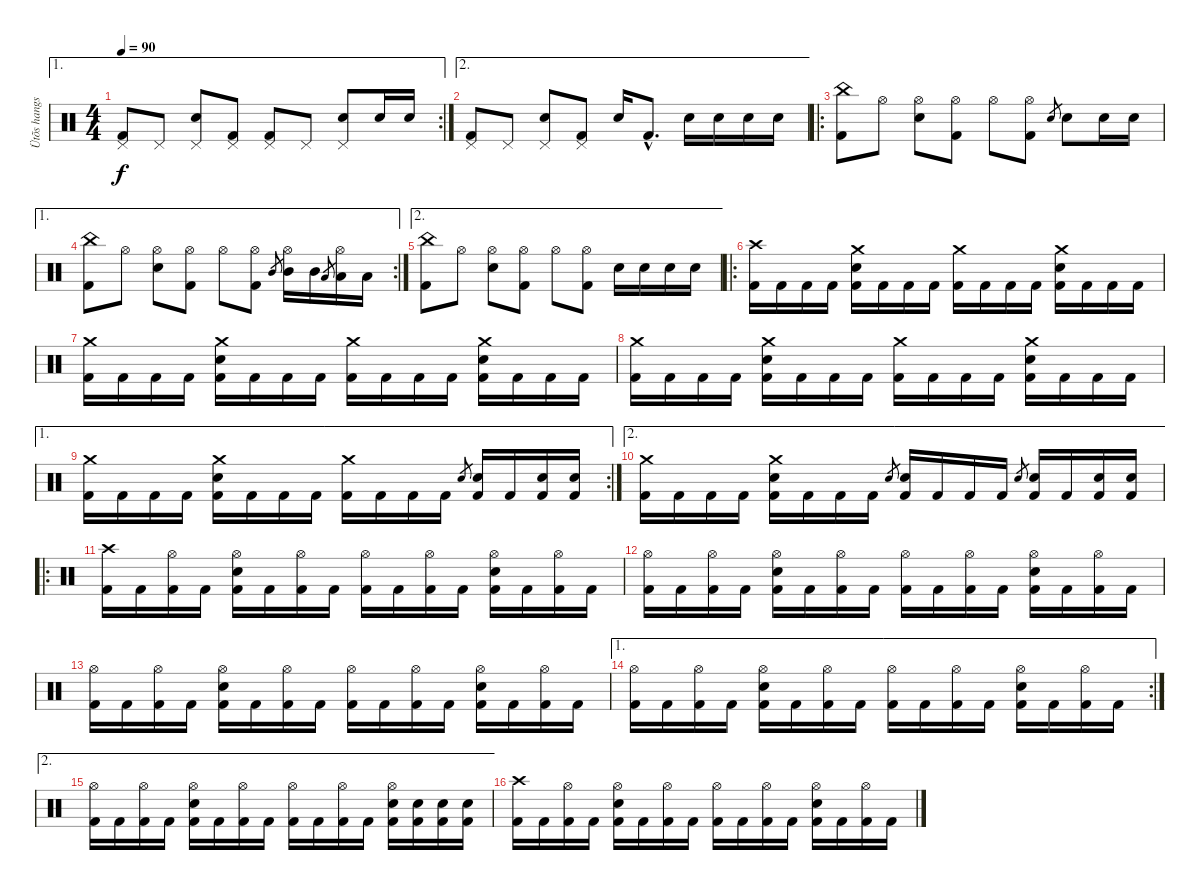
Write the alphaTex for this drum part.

\track ("Ütõs hangszer" "Ütõs hangs") {instrument percussion}
\staff {score}
\articulation defaults
\ae 1
\rc 2
\ts (4 4)
\tempo 90
\clef neutral
\ks c
("Pedal Hi-Hat (hit)" "Kick (hit) 2").8{dy f} "Pedal Hi-Hat (hit)".8 ("Pedal Hi-Hat (hit)" "Electric Snare (hit)").8 ("Pedal Hi-Hat (hit)" "Kick (hit) 2").8 ("Pedal Hi-Hat (hit)" "Kick (hit) 2").8 "Pedal Hi-Hat (hit)".8 ("Pedal Hi-Hat (hit)" "Electric Snare (hit)").8 "Electric Snare (hit)".16 "Electric Snare (hit)".16 |
\ae 2
("Pedal Hi-Hat (hit)" "Kick (hit) 2").8 "Pedal Hi-Hat (hit)".8 ("Pedal Hi-Hat (hit)" "Electric Snare (hit)").8 ("Pedal Hi-Hat (hit)" "Kick (hit) 2").8 "Electric Snare (hit)".16 "Kick (hit) 2"{hac}.8{d} "Electric Snare (hit)".16 "Electric Snare (hit)".16 "Electric Snare (hit)".16 "Electric Snare (hit)".16 |
\ro
("China (hit)" "Kick (hit) 2").8 "Hi-Hat (open)".8 ("Hi-Hat (open)" "Electric Snare (hit)").8 ("Hi-Hat (open)" "Kick (hit) 2").8 "Hi-Hat (open)".8 ("Hi-Hat (open)" "Kick (hit) 2").8 "Electric Snare (hit)".8{gr} "Electric Snare (hit)".8 "Electric Snare (hit)".16 "Electric Snare (hit)".16 |
\ae 1
\rc 2
("China (hit)" "Kick (hit) 2").8 "Hi-Hat (open)".8 ("Hi-Hat (open)" "Electric Snare (hit)").8 ("Hi-Hat (open)" "Kick (hit) 2").8 "Hi-Hat (open)".8 ("Hi-Hat (open)" "Kick (hit) 2").8 "Mid Tom (hit)".8{gr} ("Hi-Hat (open)" "Mid Tom (hit)").16 "Mid Tom (hit)".16 "Low Tom (hit)".8{gr} ("Hi-Hat (open)" "Low Tom (hit)").16 "Low Tom (hit)".16 |
\ae 2
("China (hit)" "Kick (hit) 2").8 "Hi-Hat (open)".8 ("Hi-Hat (open)" "Electric Snare (hit)").8 ("Hi-Hat (open)" "Kick (hit) 2").8 "Hi-Hat (open)".8 ("Hi-Hat (open)" "Kick (hit) 2").8 "Electric Snare (hit)".16 "Electric Snare (hit)".16 "Electric Snare (hit)".16 "Electric Snare (hit)".16 |
\ro
("Crash high (hit)" "Kick (hit) 2").16 "Kick (hit) 2".16 "Kick (hit) 2".16 "Kick (hit) 2".16 ("Crash medium (hit)" "Electric Snare (hit)" "Kick (hit) 2").16 "Kick (hit) 2".16 "Kick (hit) 2".16 "Kick (hit) 2".16 ("Crash medium (hit)" "Kick (hit) 2").16 "Kick (hit) 2".16 "Kick (hit) 2".16 "Kick (hit) 2".16 ("Crash medium (hit)" "Electric Snare (hit)" "Kick (hit) 2").16 "Kick (hit) 2".16 "Kick (hit) 2".16 "Kick (hit) 2".16 |
("Crash medium (hit)" "Kick (hit) 2").16 "Kick (hit) 2".16 "Kick (hit) 2".16 "Kick (hit) 2".16 ("Crash medium (hit)" "Electric Snare (hit)" "Kick (hit) 2").16 "Kick (hit) 2".16 "Kick (hit) 2".16 "Kick (hit) 2".16 ("Crash medium (hit)" "Kick (hit) 2").16 "Kick (hit) 2".16 "Kick (hit) 2".16 "Kick (hit) 2".16 ("Crash medium (hit)" "Electric Snare (hit)" "Kick (hit) 2").16 "Kick (hit) 2".16 "Kick (hit) 2".16 "Kick (hit) 2".16 |
("Crash medium (hit)" "Kick (hit) 2").16 "Kick (hit) 2".16 "Kick (hit) 2".16 "Kick (hit) 2".16 ("Crash medium (hit)" "Electric Snare (hit)" "Kick (hit) 2").16 "Kick (hit) 2".16 "Kick (hit) 2".16 "Kick (hit) 2".16 ("Crash medium (hit)" "Kick (hit) 2").16 "Kick (hit) 2".16 "Kick (hit) 2".16 "Kick (hit) 2".16 ("Crash medium (hit)" "Electric Snare (hit)" "Kick (hit) 2").16 "Kick (hit) 2".16 "Kick (hit) 2".16 "Kick (hit) 2".16 |
\ae 1
\rc 2
("Crash medium (hit)" "Kick (hit) 2").16 "Kick (hit) 2".16 "Kick (hit) 2".16 "Kick (hit) 2".16 ("Crash medium (hit)" "Electric Snare (hit)" "Kick (hit) 2").16 "Kick (hit) 2".16 "Kick (hit) 2".16 "Kick (hit) 2".16 ("Crash medium (hit)" "Kick (hit) 2").16 "Kick (hit) 2".16 "Kick (hit) 2".16 "Kick (hit) 2".16 "Electric Snare (hit)".8{gr} ("Electric Snare (hit)" "Kick (hit) 2").16 "Kick (hit) 2".16 ("Electric Snare (hit)" "Kick (hit) 2").16 ("Electric Snare (hit)" "Kick (hit) 2").16 |
\ae 2
("Crash medium (hit)" "Kick (hit) 2").16 "Kick (hit) 2".16 "Kick (hit) 2".16 "Kick (hit) 2".16 ("Crash medium (hit)" "Electric Snare (hit)" "Kick (hit) 2").16 "Kick (hit) 2".16 "Kick (hit) 2".16 "Kick (hit) 2".16 "Electric Snare (hit)".8{gr} ("Electric Snare (hit)" "Kick (hit) 2").16 "Kick (hit) 2".16 "Kick (hit) 2".16 "Kick (hit) 2".16 "Electric Snare (hit)".8{gr} ("Electric Snare (hit)" "Kick (hit) 2").16 "Kick (hit) 2".16 ("Electric Snare (hit)" "Kick (hit) 2").16 ("Electric Snare (hit)" "Kick (hit) 2").16 |
\ro
("Crash high (hit)" "Kick (hit) 2").16 "Kick (hit) 2".16 ("Hi-Hat (open)" "Kick (hit) 2").16 "Kick (hit) 2".16 ("Hi-Hat (open)" "Electric Snare (hit)" "Kick (hit) 2").16 "Kick (hit) 2".16 ("Hi-Hat (open)" "Kick (hit) 2").16 "Kick (hit) 2".16 ("Hi-Hat (open)" "Kick (hit) 2").16 "Kick (hit) 2".16 ("Hi-Hat (open)" "Kick (hit) 2").16 "Kick (hit) 2".16 ("Hi-Hat (open)" "Electric Snare (hit)" "Kick (hit) 2").16 "Kick (hit) 2".16 ("Hi-Hat (open)" "Kick (hit) 2").16 "Kick (hit) 2".16 |
("Hi-Hat (open)" "Kick (hit) 2").16 "Kick (hit) 2".16 ("Hi-Hat (open)" "Kick (hit) 2").16 "Kick (hit) 2".16 ("Hi-Hat (open)" "Electric Snare (hit)" "Kick (hit) 2").16 "Kick (hit) 2".16 ("Hi-Hat (open)" "Kick (hit) 2").16 "Kick (hit) 2".16 ("Hi-Hat (open)" "Kick (hit) 2").16 "Kick (hit) 2".16 ("Hi-Hat (open)" "Kick (hit) 2").16 "Kick (hit) 2".16 ("Hi-Hat (open)" "Electric Snare (hit)" "Kick (hit) 2").16 "Kick (hit) 2".16 ("Hi-Hat (open)" "Kick (hit) 2").16 "Kick (hit) 2".16 |
("Hi-Hat (open)" "Kick (hit) 2").16 "Kick (hit) 2".16 ("Hi-Hat (open)" "Kick (hit) 2").16 "Kick (hit) 2".16 ("Hi-Hat (open)" "Electric Snare (hit)" "Kick (hit) 2").16 "Kick (hit) 2".16 ("Hi-Hat (open)" "Kick (hit) 2").16 "Kick (hit) 2".16 ("Hi-Hat (open)" "Kick (hit) 2").16 "Kick (hit) 2".16 ("Hi-Hat (open)" "Kick (hit) 2").16 "Kick (hit) 2".16 ("Hi-Hat (open)" "Electric Snare (hit)" "Kick (hit) 2").16 "Kick (hit) 2".16 ("Hi-Hat (open)" "Kick (hit) 2").16 "Kick (hit) 2".16 |
\ae 1
\rc 2
("Hi-Hat (open)" "Kick (hit) 2").16 "Kick (hit) 2".16 ("Hi-Hat (open)" "Kick (hit) 2").16 "Kick (hit) 2".16 ("Hi-Hat (open)" "Electric Snare (hit)" "Kick (hit) 2").16 "Kick (hit) 2".16 ("Hi-Hat (open)" "Kick (hit) 2").16 "Kick (hit) 2".16 ("Hi-Hat (open)" "Kick (hit) 2").16 "Kick (hit) 2".16 ("Hi-Hat (open)" "Kick (hit) 2").16 "Kick (hit) 2".16 ("Hi-Hat (open)" "Electric Snare (hit)" "Kick (hit) 2").16 "Kick (hit) 2".16 ("Hi-Hat (open)" "Kick (hit) 2").16 "Kick (hit) 2".16 |
\ae 2
("Hi-Hat (open)" "Kick (hit) 2").16 "Kick (hit) 2".16 ("Hi-Hat (open)" "Kick (hit) 2").16 "Kick (hit) 2".16 ("Hi-Hat (open)" "Electric Snare (hit)" "Kick (hit) 2").16 "Kick (hit) 2".16 ("Hi-Hat (open)" "Kick (hit) 2").16 "Kick (hit) 2".16 ("Hi-Hat (open)" "Kick (hit) 2").16 "Kick (hit) 2".16 ("Hi-Hat (open)" "Kick (hit) 2").16 "Kick (hit) 2".16 ("Hi-Hat (open)" "Electric Snare (hit)" "Kick (hit) 2").16 ("Electric Snare (hit)" "Kick (hit) 2").16 ("Electric Snare (hit)" "Kick (hit) 2").16 ("Electric Snare (hit)" "Kick (hit) 2").16 |
("Crash high (hit)" "Kick (hit) 2").16 "Kick (hit) 2".16 ("Hi-Hat (open)" "Kick (hit) 2").16 "Kick (hit) 2".16 ("Hi-Hat (open)" "Electric Snare (hit)" "Kick (hit) 2").16 "Kick (hit) 2".16 ("Hi-Hat (open)" "Kick (hit) 2").16 "Kick (hit) 2".16 ("Hi-Hat (open)" "Kick (hit) 2").16 "Kick (hit) 2".16 ("Hi-Hat (open)" "Kick (hit) 2").16 "Kick (hit) 2".16 ("Hi-Hat (open)" "Electric Snare (hit)" "Kick (hit) 2").16 "Kick (hit) 2".16 ("Hi-Hat (open)" "Kick (hit) 2").16 "Kick (hit) 2".16
